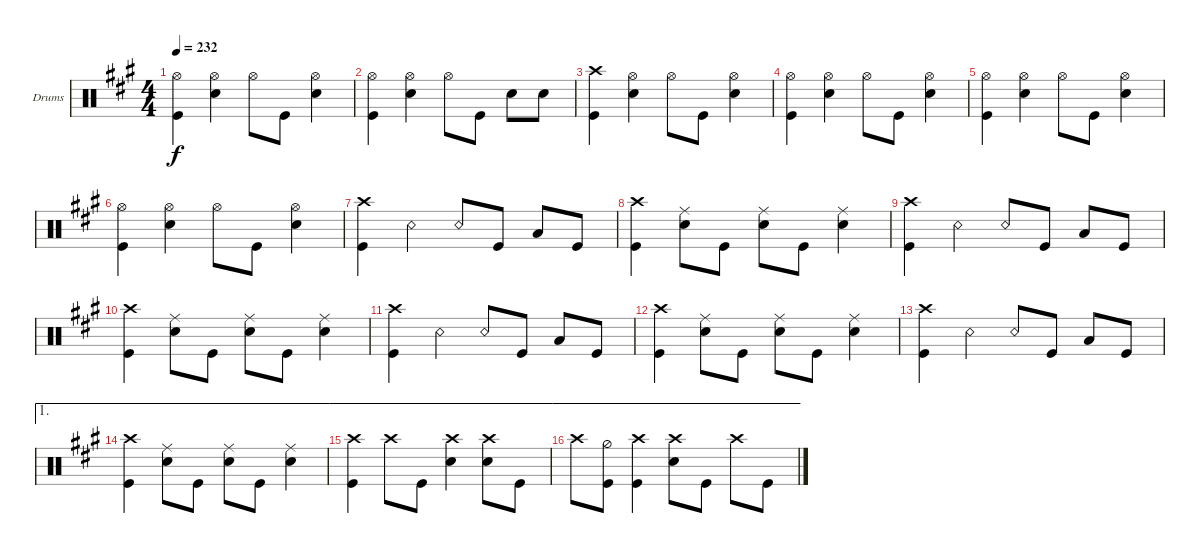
\defaultSystemsLayout 4
\bracketExtendMode groupsimilarinstruments
\firstSystemTrackNameOrientation horizontal
\otherSystemsTrackNameOrientation horizontal
\track ("Drums" "Drums") {instrument percussion}
\staff {score}
\articulation defaults
\ts (4 4)
\tempo 232
\clef neutral
\ks a
("Kick (hit)" "Hi-Hat (open)").4{dy f} ("Snare (hit) 2" "Hi-Hat (open)").4 "Hi-Hat (open)".8 "Kick (hit)".8 ("Snare (hit) 2" "Hi-Hat (open)").4 |
("Kick (hit)" "Hi-Hat (open)").4 ("Snare (hit) 2" "Hi-Hat (open)").4 "Hi-Hat (open)".8 "Kick (hit)".8 "Snare (hit) 2".8 "Snare (hit) 2".8 |
("Kick (hit)" "Crash high (hit)").4 ("Snare (hit) 2" "Hi-Hat (open)").4 "Hi-Hat (open)".8 "Kick (hit)".8 ("Snare (hit) 2" "Hi-Hat (open)").4 |
("Kick (hit)" "Hi-Hat (open)").4 ("Snare (hit) 2" "Hi-Hat (open)").4 "Hi-Hat (open)".8 "Kick (hit)".8 ("Snare (hit) 2" "Hi-Hat (open)").4 |
("Kick (hit)" "Hi-Hat (open)").4 ("Snare (hit) 2" "Hi-Hat (open)").4 "Hi-Hat (open)".8 "Kick (hit)".8 ("Snare (hit) 2" "Hi-Hat (open)").4 |
("Kick (hit)" "Hi-Hat (open)").4 ("Snare (hit) 2" "Hi-Hat (open)").4 "Hi-Hat (open)".8 "Kick (hit)".8 ("Snare (hit) 2" "Hi-Hat (open)").4 |
("Kick (hit)" "Crash high (hit)").4 "Snare (rim shot)".4 "Snare (rim shot)".8 "Kick (hit)".8 "Low Tom (hit)".8 "Kick (hit)".8 |
("Kick (hit)" "Crash high (hit)").4 ("Snare (hit) 2" "Ride (middle)").8 "Kick (hit)".8 ("Snare (hit) 2" "Ride (middle)").8 "Kick (hit)".8 ("Ride (middle)" "Snare (hit) 2").4 |
("Kick (hit)" "Crash high (hit)").4 "Snare (rim shot)".4 "Snare (rim shot)".8 "Kick (hit)".8 "Low Tom (hit)".8 "Kick (hit)".8 |
("Kick (hit)" "Crash high (hit)").4 ("Snare (hit) 2" "Ride (middle)").8 "Kick (hit)".8 ("Snare (hit) 2" "Ride (middle)").8 "Kick (hit)".8 ("Ride (middle)" "Snare (hit) 2").4 |
("Kick (hit)" "Crash high (hit)").4 "Snare (rim shot)".4 "Snare (rim shot)".8 "Kick (hit)".8 "Low Tom (hit)".8 "Kick (hit)".8 |
("Kick (hit)" "Crash high (hit)").4 ("Snare (hit) 2" "Ride (middle)").8 "Kick (hit)".8 ("Snare (hit) 2" "Ride (middle)").8 "Kick (hit)".8 ("Ride (middle)" "Snare (hit) 2").4 |
("Kick (hit)" "Crash high (hit)").4 "Snare (rim shot)".4 "Snare (rim shot)".8 "Kick (hit)".8 "Low Tom (hit)".8 "Kick (hit)".8 |
\ae 1
("Kick (hit)" "Crash high (hit)").4 ("Snare (hit) 2" "Ride (middle)").8 "Kick (hit)".8 ("Snare (hit) 2" "Ride (middle)").8 "Kick (hit)".8 ("Ride (middle)" "Snare (hit) 2").4 |
\ae 1
("Crash high (hit)" "Kick (hit)").4 "Crash high (hit)".8 "Kick (hit)".8 ("Snare (hit) 2" "Crash high (hit)").4 ("Crash high (hit)" "Snare (hit) 2").8 "Kick (hit)".8 |
\ae 1 "Crash high (hit)".8
("Kick (hit)" "Hi-Hat (half)").8 ("Kick (hit)" "Crash high (hit)").4 ("Crash high (hit)" "Snare (hit) 2").8 "Kick (hit)".8 "Crash high (hit)".8 "Kick (hit)".8
